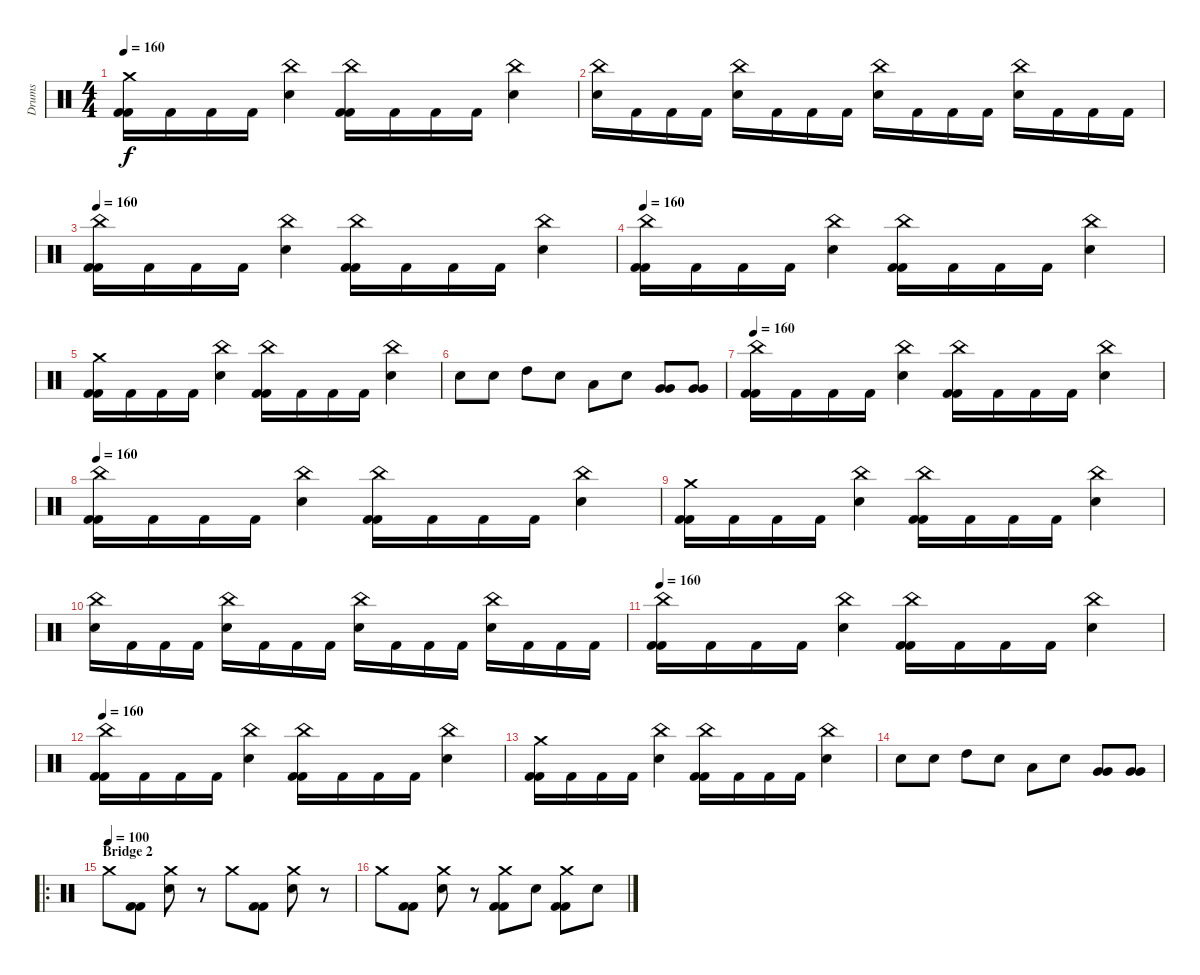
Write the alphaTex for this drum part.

\track ("Drums" "Drums") {instrument percussion}
\staff {score}
\articulation defaults
\ts (4 4)
\tempo 160
\clef neutral
\ks c
("Crash medium (hit)" "Kick (hit) 2" "Kick (hit) 2").16{dy f} "Kick (hit) 2".16 "Kick (hit) 2".16 "Kick (hit) 2".16 ("Electric Snare (hit)" "China (hit)").4 ("China (hit)" "Kick (hit) 2" "Kick (hit) 2").16 "Kick (hit) 2".16 "Kick (hit) 2".16 "Kick (hit) 2".16 ("Electric Snare (hit)" "China (hit)").4 |
("China (hit)" "Electric Snare (hit)").16 "Kick (hit) 2".16 "Kick (hit) 2".16 "Kick (hit) 2".16 ("Electric Snare (hit)" "China (hit)").16 "Kick (hit) 2".16 "Kick (hit) 2".16 "Kick (hit) 2".16 ("Electric Snare (hit)" "China (hit)").16 "Kick (hit) 2".16 "Kick (hit) 2".16 "Kick (hit) 2".16 ("Electric Snare (hit)" "China (hit)").16 "Kick (hit) 2".16 "Kick (hit) 2".16 "Kick (hit) 2".16 |
\tempo 160
("China (hit)" "Kick (hit) 2" "Kick (hit) 2").16 "Kick (hit) 2".16 "Kick (hit) 2".16 "Kick (hit) 2".16 ("Electric Snare (hit)" "China (hit)").4 ("China (hit)" "Kick (hit) 2" "Kick (hit) 2").16 "Kick (hit) 2".16 "Kick (hit) 2".16 "Kick (hit) 2".16 ("Electric Snare (hit)" "China (hit)").4 |
\tempo 160
("China (hit)" "Kick (hit) 2" "Kick (hit) 2").16 "Kick (hit) 2".16 "Kick (hit) 2".16 "Kick (hit) 2".16 ("Electric Snare (hit)" "China (hit)").4 ("China (hit)" "Kick (hit) 2" "Kick (hit) 2").16 "Kick (hit) 2".16 "Kick (hit) 2".16 "Kick (hit) 2".16 ("Electric Snare (hit)" "China (hit)").4 |
("Crash medium (hit)" "Kick (hit) 2" "Kick (hit) 2").16 "Kick (hit) 2".16 "Kick (hit) 2".16 "Kick (hit) 2".16 ("Electric Snare (hit)" "China (hit)").4 ("China (hit)" "Kick (hit) 2" "Kick (hit) 2").16 "Kick (hit) 2".16 "Kick (hit) 2".16 "Kick (hit) 2".16 ("Electric Snare (hit)" "China (hit)").4 |
"Electric Snare (hit)".8 "Electric Snare (hit)".8 "High Tom (hit)".8 "Electric Snare (hit)".8 "Low Tom (hit)".8 "Electric Snare (hit)".8 ("Very Low Tom (hit)" "Very Low Tom (hit)").8 ("Very Low Tom (hit)" "Very Low Tom (hit)").8 |
\tempo 160
("China (hit)" "Kick (hit) 2" "Kick (hit) 2").16 "Kick (hit) 2".16 "Kick (hit) 2".16 "Kick (hit) 2".16 ("Electric Snare (hit)" "China (hit)").4 ("China (hit)" "Kick (hit) 2" "Kick (hit) 2").16 "Kick (hit) 2".16 "Kick (hit) 2".16 "Kick (hit) 2".16 ("Electric Snare (hit)" "China (hit)").4 |
\tempo 160
("China (hit)" "Kick (hit) 2" "Kick (hit) 2").16 "Kick (hit) 2".16 "Kick (hit) 2".16 "Kick (hit) 2".16 ("Electric Snare (hit)" "China (hit)").4 ("China (hit)" "Kick (hit) 2" "Kick (hit) 2").16 "Kick (hit) 2".16 "Kick (hit) 2".16 "Kick (hit) 2".16 ("Electric Snare (hit)" "China (hit)").4 |
("Crash medium (hit)" "Kick (hit) 2" "Kick (hit) 2").16 "Kick (hit) 2".16 "Kick (hit) 2".16 "Kick (hit) 2".16 ("Electric Snare (hit)" "China (hit)").4 ("China (hit)" "Kick (hit) 2" "Kick (hit) 2").16 "Kick (hit) 2".16 "Kick (hit) 2".16 "Kick (hit) 2".16 ("Electric Snare (hit)" "China (hit)").4 |
("China (hit)" "Electric Snare (hit)").16 "Kick (hit) 2".16 "Kick (hit) 2".16 "Kick (hit) 2".16 ("Electric Snare (hit)" "China (hit)").16 "Kick (hit) 2".16 "Kick (hit) 2".16 "Kick (hit) 2".16 ("Electric Snare (hit)" "China (hit)").16 "Kick (hit) 2".16 "Kick (hit) 2".16 "Kick (hit) 2".16 ("Electric Snare (hit)" "China (hit)").16 "Kick (hit) 2".16 "Kick (hit) 2".16 "Kick (hit) 2".16 |
\tempo 160
("China (hit)" "Kick (hit) 2" "Kick (hit) 2").16 "Kick (hit) 2".16 "Kick (hit) 2".16 "Kick (hit) 2".16 ("Electric Snare (hit)" "China (hit)").4 ("China (hit)" "Kick (hit) 2" "Kick (hit) 2").16 "Kick (hit) 2".16 "Kick (hit) 2".16 "Kick (hit) 2".16 ("Electric Snare (hit)" "China (hit)").4 |
\tempo 160
("China (hit)" "Kick (hit) 2" "Kick (hit) 2").16 "Kick (hit) 2".16 "Kick (hit) 2".16 "Kick (hit) 2".16 ("Electric Snare (hit)" "China (hit)").4 ("China (hit)" "Kick (hit) 2" "Kick (hit) 2").16 "Kick (hit) 2".16 "Kick (hit) 2".16 "Kick (hit) 2".16 ("Electric Snare (hit)" "China (hit)").4 |
("Crash medium (hit)" "Kick (hit) 2" "Kick (hit) 2").16 "Kick (hit) 2".16 "Kick (hit) 2".16 "Kick (hit) 2".16 ("Electric Snare (hit)" "China (hit)").4 ("China (hit)" "Kick (hit) 2" "Kick (hit) 2").16 "Kick (hit) 2".16 "Kick (hit) 2".16 "Kick (hit) 2".16 ("Electric Snare (hit)" "China (hit)").4 |
"Electric Snare (hit)".8 "Electric Snare (hit)".8 "High Tom (hit)".8 "Electric Snare (hit)".8 "Low Tom (hit)".8 "Electric Snare (hit)".8 ("Very Low Tom (hit)" "Very Low Tom (hit)").8 ("Very Low Tom (hit)" "Very Low Tom (hit)").8 |
\ro
\section ("" "Bridge 2 ")
\tempo (100)
"Crash medium (hit)".8 ("Kick (hit) 2" "Kick (hit) 2").8 ("Electric Snare (hit)" "Crash medium (hit)").8 r.8 "Crash medium (hit)".8 ("Kick (hit) 2" "Kick (hit) 2").8 ("Electric Snare (hit)" "Crash medium (hit)").8 r.8 |
"Crash medium (hit)".8 ("Kick (hit) 2" "Kick (hit) 2").8 ("Electric Snare (hit)" "Crash medium (hit)").8 r.8 ("Crash medium (hit)" "Kick (hit) 2" "Kick (hit) 2").8 "Electric Snare (hit)".8 ("Crash medium (hit)" "Kick (hit) 2" "Kick (hit) 2").8 "Electric Snare (hit)".8
